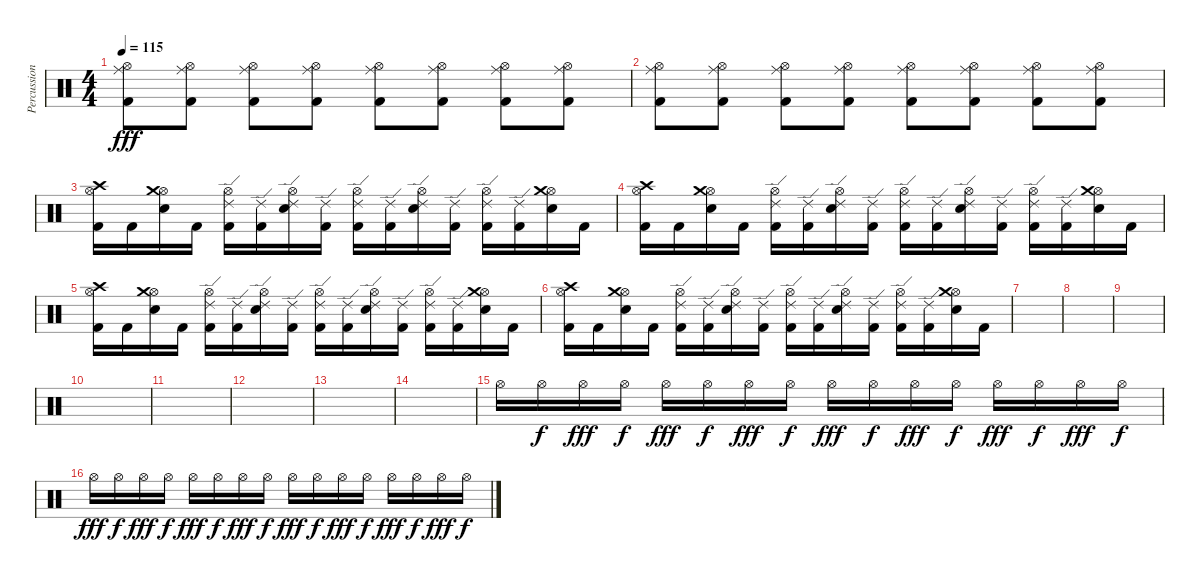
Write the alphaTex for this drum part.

\track ("Percussion" "Percussion") {instrument percussion}
\staff {score}
\articulation defaults
\ts (4 4)
\tempo 115
\clef neutral
\ks c
("Kick (hit) 2" "Hi-Hat (open)" "Ride (middle)").8{dy fff} ("Kick (hit) 2" "Hi-Hat (open)" "Ride (middle)").8 ("Kick (hit) 2" "Hi-Hat (open)" "Ride (middle)").8 ("Kick (hit) 2" "Hi-Hat (open)" "Ride (middle)").8 ("Kick (hit) 2" "Hi-Hat (open)" "Ride (middle)").8 ("Kick (hit) 2" "Hi-Hat (open)" "Ride (middle)").8 ("Kick (hit) 2" "Hi-Hat (open)" "Ride (middle)").8 ("Kick (hit) 2" "Hi-Hat (open)" "Ride (middle)").8 |
("Kick (hit) 2" "Hi-Hat (open)" "Ride (middle)").8 ("Kick (hit) 2" "Hi-Hat (open)" "Ride (middle)").8 ("Kick (hit) 2" "Hi-Hat (open)" "Ride (middle)").8 ("Kick (hit) 2" "Hi-Hat (open)" "Ride (middle)").8 ("Kick (hit) 2" "Hi-Hat (open)" "Ride (middle)").8 ("Kick (hit) 2" "Hi-Hat (open)" "Ride (middle)").8 ("Kick (hit) 2" "Hi-Hat (open)" "Ride (middle)").8 ("Kick (hit) 2" "Hi-Hat (open)" "Ride (middle)").8 |
("Kick (hit) 2" "Hi-Hat (open)" "Crash high (hit)").16 "Kick (hit) 2".16 ("Electric Snare (hit)" "Hi-Hat (open)" "Crash medium (hit)").16 "Kick (hit) 2".16 ("Kick (hit) 2" "Hi-Hat (open)" "Ride (edge) 2").16 ("Kick (hit) 2" "Ride (edge) 2").16 ("Electric Snare (hit)" "Hi-Hat (open)" "Ride (edge) 2").16 ("Kick (hit) 2" "Ride (edge) 2").16 ("Kick (hit) 2" "Hi-Hat (open)" "Ride (edge) 2").16 ("Kick (hit) 2" "Ride (edge) 2").16 ("Electric Snare (hit)" "Hi-Hat (open)" "Ride (edge) 2").16 ("Kick (hit) 2" "Ride (edge) 2").16 ("Kick (hit) 2" "Hi-Hat (open)" "Ride (edge) 2").16 ("Kick (hit) 2" "Ride (edge) 2").16 ("Electric Snare (hit)" "Hi-Hat (open)" "Crash medium (hit)").16 "Kick (hit) 2".16 |
("Kick (hit) 2" "Hi-Hat (open)" "Crash high (hit)").16 "Kick (hit) 2".16 ("Electric Snare (hit)" "Hi-Hat (open)" "Crash medium (hit)").16 "Kick (hit) 2".16 ("Kick (hit) 2" "Hi-Hat (open)" "Ride (edge) 2").16 ("Kick (hit) 2" "Ride (edge) 2").16 ("Electric Snare (hit)" "Hi-Hat (open)" "Ride (edge) 2").16 ("Kick (hit) 2" "Ride (edge) 2").16 ("Kick (hit) 2" "Hi-Hat (open)" "Ride (edge) 2").16 ("Kick (hit) 2" "Ride (edge) 2").16 ("Electric Snare (hit)" "Hi-Hat (open)" "Ride (edge) 2").16 ("Kick (hit) 2" "Ride (edge) 2").16 ("Kick (hit) 2" "Hi-Hat (open)" "Ride (edge) 2").16 ("Kick (hit) 2" "Ride (edge) 2").16 ("Electric Snare (hit)" "Hi-Hat (open)" "Crash medium (hit)").16 "Kick (hit) 2".16 |
("Kick (hit) 2" "Hi-Hat (open)" "Crash high (hit)").16 "Kick (hit) 2".16 ("Electric Snare (hit)" "Hi-Hat (open)" "Crash medium (hit)").16 "Kick (hit) 2".16 ("Kick (hit) 2" "Hi-Hat (open)" "Ride (edge) 2").16 ("Kick (hit) 2" "Ride (edge) 2").16 ("Electric Snare (hit)" "Hi-Hat (open)" "Ride (edge) 2").16 ("Kick (hit) 2" "Ride (edge) 2").16 ("Kick (hit) 2" "Hi-Hat (open)" "Ride (edge) 2").16 ("Kick (hit) 2" "Ride (edge) 2").16 ("Electric Snare (hit)" "Hi-Hat (open)" "Ride (edge) 2").16 ("Kick (hit) 2" "Ride (edge) 2").16 ("Kick (hit) 2" "Hi-Hat (open)" "Ride (edge) 2").16 ("Kick (hit) 2" "Ride (edge) 2").16 ("Electric Snare (hit)" "Hi-Hat (open)" "Crash medium (hit)").16 "Kick (hit) 2".16 |
("Kick (hit) 2" "Hi-Hat (open)" "Crash high (hit)").16 "Kick (hit) 2".16 ("Electric Snare (hit)" "Hi-Hat (open)" "Crash medium (hit)").16 "Kick (hit) 2".16 ("Kick (hit) 2" "Hi-Hat (open)" "Ride (edge) 2").16 ("Kick (hit) 2" "Ride (edge) 2").16 ("Electric Snare (hit)" "Hi-Hat (open)" "Ride (edge) 2").16 ("Kick (hit) 2" "Ride (edge) 2").16 ("Kick (hit) 2" "Hi-Hat (open)" "Ride (edge) 2").16 ("Kick (hit) 2" "Ride (edge) 2").16 ("Electric Snare (hit)" "Hi-Hat (open)" "Ride (edge) 2").16 ("Kick (hit) 2" "Ride (edge) 2").16 ("Kick (hit) 2" "Hi-Hat (open)" "Ride (edge) 2").16 ("Kick (hit) 2" "Ride (edge) 2").16 ("Electric Snare (hit)" "Hi-Hat (open)" "Crash medium (hit)").16 "Kick (hit) 2".16 |
|
|
|
|
|
|
|
|
"Hi-Hat (open)".16 "Hi-Hat (open)".16{dy f} "Hi-Hat (open)".16{dy fff} "Hi-Hat (open)".16{dy f} "Hi-Hat (open)".16{dy fff} "Hi-Hat (open)".16{dy f} "Hi-Hat (open)".16{dy fff} "Hi-Hat (open)".16{dy f} "Hi-Hat (open)".16{dy fff} "Hi-Hat (open)".16{dy f} "Hi-Hat (open)".16{dy fff} "Hi-Hat (open)".16{dy f} "Hi-Hat (open)".16{dy fff} "Hi-Hat (open)".16{dy f} "Hi-Hat (open)".16{dy fff} "Hi-Hat (open)".16{dy f} |
"Hi-Hat (open)".16{dy fff} "Hi-Hat (open)".16{dy f} "Hi-Hat (open)".16{dy fff} "Hi-Hat (open)".16{dy f} "Hi-Hat (open)".16{dy fff} "Hi-Hat (open)".16{dy f} "Hi-Hat (open)".16{dy fff} "Hi-Hat (open)".16{dy f} "Hi-Hat (open)".16{dy fff} "Hi-Hat (open)".16{dy f} "Hi-Hat (open)".16{dy fff} "Hi-Hat (open)".16{dy f} "Hi-Hat (open)".16{dy fff} "Hi-Hat (open)".16{dy f} "Hi-Hat (open)".16{dy fff} "Hi-Hat (open)".16{dy f}
